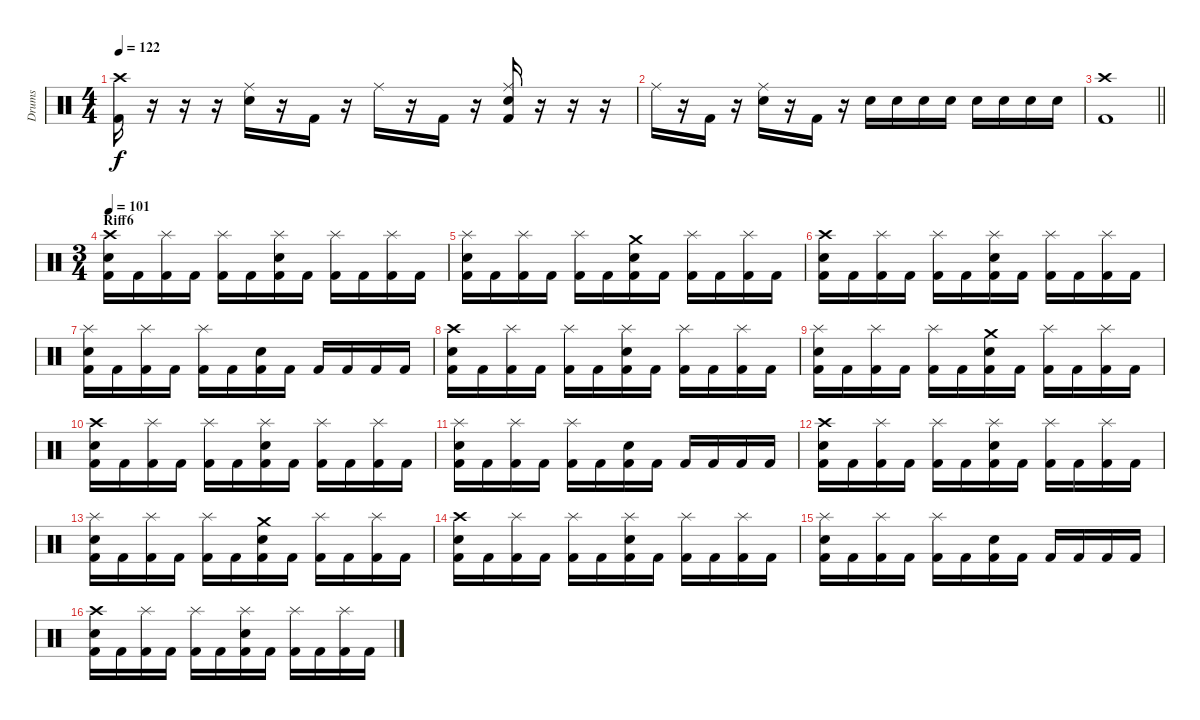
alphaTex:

\track ("Drums" "Drums") {instrument percussion}
\staff {score}
\articulation defaults
\ts (4 4)
\tempo 122
\clef neutral
\ks c
("Crash high (hit)" "Kick (hit) 2").16{dy f} r.16 r.16 r.16 ("Ride (middle)" "Snare (hit) 2").16 r.16 "Kick (hit) 2".16 r.16 "Ride (middle)".16 r.16 "Kick (hit) 2".16 r.16 ("Ride (middle)" "Snare (hit) 2" "Kick (hit) 2").16 r.16 r.16 r.16 |
"Ride (middle)".16 r.16 "Kick (hit) 2".16 r.16 ("Ride (middle)" "Snare (hit) 2").16 r.16 "Kick (hit) 2".16 r.16 "Snare (hit) 2".16 "Snare (hit) 2".16 "Snare (hit) 2".16 "Snare (hit) 2".16 "Snare (hit) 2".16 "Snare (hit) 2".16 "Snare (hit) 2".16 "Snare (hit) 2".16 |
\barLineRight lightlight
("Crash high (hit)" "Kick (hit) 2").1 |
\ts (3 4)
\section ("" "Riff6")
\tempo 101
("Crash high (hit)" "Snare (hit) 2" "Kick (hit) 2").16 "Kick (hit) 2".16 ("Splash (hit)" "Kick (hit) 2").16 "Kick (hit) 2".16 ("Splash (hit)" "Kick (hit) 2").16 "Kick (hit) 2".16 ("Splash (hit)" "Snare (hit) 2" "Kick (hit) 2").16 "Kick (hit) 2".16 ("Splash (hit)" "Kick (hit) 2").16 "Kick (hit) 2".16 ("Splash (hit)" "Kick (hit) 2").16 "Kick (hit) 2".16 |
("Splash (hit)" "Snare (hit) 2" "Kick (hit) 2").16 "Kick (hit) 2".16 ("Splash (hit)" "Kick (hit) 2").16 "Kick (hit) 2".16 ("Splash (hit)" "Kick (hit) 2").16 "Kick (hit) 2".16 ("Crash medium (hit)" "Snare (hit) 2" "Kick (hit) 2").16 "Kick (hit) 2".16 ("Splash (hit)" "Kick (hit) 2").16 "Kick (hit) 2".16 ("Splash (hit)" "Kick (hit) 2").16 "Kick (hit) 2".16 |
("Crash high (hit)" "Snare (hit) 2" "Kick (hit) 2").16 "Kick (hit) 2".16 ("Splash (hit)" "Kick (hit) 2").16 "Kick (hit) 2".16 ("Splash (hit)" "Kick (hit) 2").16 "Kick (hit) 2".16 ("Splash (hit)" "Snare (hit) 2" "Kick (hit) 2").16 "Kick (hit) 2".16 ("Splash (hit)" "Kick (hit) 2").16 "Kick (hit) 2".16 ("Splash (hit)" "Kick (hit) 2").16 "Kick (hit) 2".16 |
("Splash (hit)" "Snare (hit) 2" "Kick (hit) 2").16 "Kick (hit) 2".16 ("Splash (hit)" "Kick (hit) 2").16 "Kick (hit) 2".16 ("Splash (hit)" "Kick (hit) 2").16 "Kick (hit) 2".16 ("Snare (hit) 2" "Kick (hit) 2").16 "Kick (hit) 2".16 "Kick (hit) 2".16 "Kick (hit) 2".16 "Kick (hit) 2".16 "Kick (hit) 2".16 |
("Crash high (hit)" "Snare (hit) 2" "Kick (hit) 2").16 "Kick (hit) 2".16 ("Splash (hit)" "Kick (hit) 2").16 "Kick (hit) 2".16 ("Splash (hit)" "Kick (hit) 2").16 "Kick (hit) 2".16 ("Splash (hit)" "Snare (hit) 2" "Kick (hit) 2").16 "Kick (hit) 2".16 ("Splash (hit)" "Kick (hit) 2").16 "Kick (hit) 2".16 ("Splash (hit)" "Kick (hit) 2").16 "Kick (hit) 2".16 |
("Splash (hit)" "Snare (hit) 2" "Kick (hit) 2").16 "Kick (hit) 2".16 ("Splash (hit)" "Kick (hit) 2").16 "Kick (hit) 2".16 ("Splash (hit)" "Kick (hit) 2").16 "Kick (hit) 2".16 ("Crash medium (hit)" "Snare (hit) 2" "Kick (hit) 2").16 "Kick (hit) 2".16 ("Splash (hit)" "Kick (hit) 2").16 "Kick (hit) 2".16 ("Splash (hit)" "Kick (hit) 2").16 "Kick (hit) 2".16 |
("Crash high (hit)" "Snare (hit) 2" "Kick (hit) 2").16 "Kick (hit) 2".16 ("Splash (hit)" "Kick (hit) 2").16 "Kick (hit) 2".16 ("Splash (hit)" "Kick (hit) 2").16 "Kick (hit) 2".16 ("Splash (hit)" "Snare (hit) 2" "Kick (hit) 2").16 "Kick (hit) 2".16 ("Splash (hit)" "Kick (hit) 2").16 "Kick (hit) 2".16 ("Splash (hit)" "Kick (hit) 2").16 "Kick (hit) 2".16 |
("Splash (hit)" "Snare (hit) 2" "Kick (hit) 2").16 "Kick (hit) 2".16 ("Splash (hit)" "Kick (hit) 2").16 "Kick (hit) 2".16 ("Splash (hit)" "Kick (hit) 2").16 "Kick (hit) 2".16 ("Snare (hit) 2" "Kick (hit) 2").16 "Kick (hit) 2".16 "Kick (hit) 2".16 "Kick (hit) 2".16 "Kick (hit) 2".16 "Kick (hit) 2".16 |
("Crash high (hit)" "Snare (hit) 2" "Kick (hit) 2").16 "Kick (hit) 2".16 ("Splash (hit)" "Kick (hit) 2").16 "Kick (hit) 2".16 ("Splash (hit)" "Kick (hit) 2").16 "Kick (hit) 2".16 ("Splash (hit)" "Snare (hit) 2" "Kick (hit) 2").16 "Kick (hit) 2".16 ("Splash (hit)" "Kick (hit) 2").16 "Kick (hit) 2".16 ("Splash (hit)" "Kick (hit) 2").16 "Kick (hit) 2".16 |
("Splash (hit)" "Snare (hit) 2" "Kick (hit) 2").16 "Kick (hit) 2".16 ("Splash (hit)" "Kick (hit) 2").16 "Kick (hit) 2".16 ("Splash (hit)" "Kick (hit) 2").16 "Kick (hit) 2".16 ("Crash medium (hit)" "Snare (hit) 2" "Kick (hit) 2").16 "Kick (hit) 2".16 ("Splash (hit)" "Kick (hit) 2").16 "Kick (hit) 2".16 ("Splash (hit)" "Kick (hit) 2").16 "Kick (hit) 2".16 |
("Crash high (hit)" "Snare (hit) 2" "Kick (hit) 2").16 "Kick (hit) 2".16 ("Splash (hit)" "Kick (hit) 2").16 "Kick (hit) 2".16 ("Splash (hit)" "Kick (hit) 2").16 "Kick (hit) 2".16 ("Splash (hit)" "Snare (hit) 2" "Kick (hit) 2").16 "Kick (hit) 2".16 ("Splash (hit)" "Kick (hit) 2").16 "Kick (hit) 2".16 ("Splash (hit)" "Kick (hit) 2").16 "Kick (hit) 2".16 |
("Splash (hit)" "Snare (hit) 2" "Kick (hit) 2").16 "Kick (hit) 2".16 ("Splash (hit)" "Kick (hit) 2").16 "Kick (hit) 2".16 ("Splash (hit)" "Kick (hit) 2").16 "Kick (hit) 2".16 ("Snare (hit) 2" "Kick (hit) 2").16 "Kick (hit) 2".16 "Kick (hit) 2".16 "Kick (hit) 2".16 "Kick (hit) 2".16 "Kick (hit) 2".16 |
("Crash high (hit)" "Snare (hit) 2" "Kick (hit) 2").16 "Kick (hit) 2".16 ("Splash (hit)" "Kick (hit) 2").16 "Kick (hit) 2".16 ("Splash (hit)" "Kick (hit) 2").16 "Kick (hit) 2".16 ("Splash (hit)" "Snare (hit) 2" "Kick (hit) 2").16 "Kick (hit) 2".16 ("Splash (hit)" "Kick (hit) 2").16 "Kick (hit) 2".16 ("Splash (hit)" "Kick (hit) 2").16 "Kick (hit) 2".16
